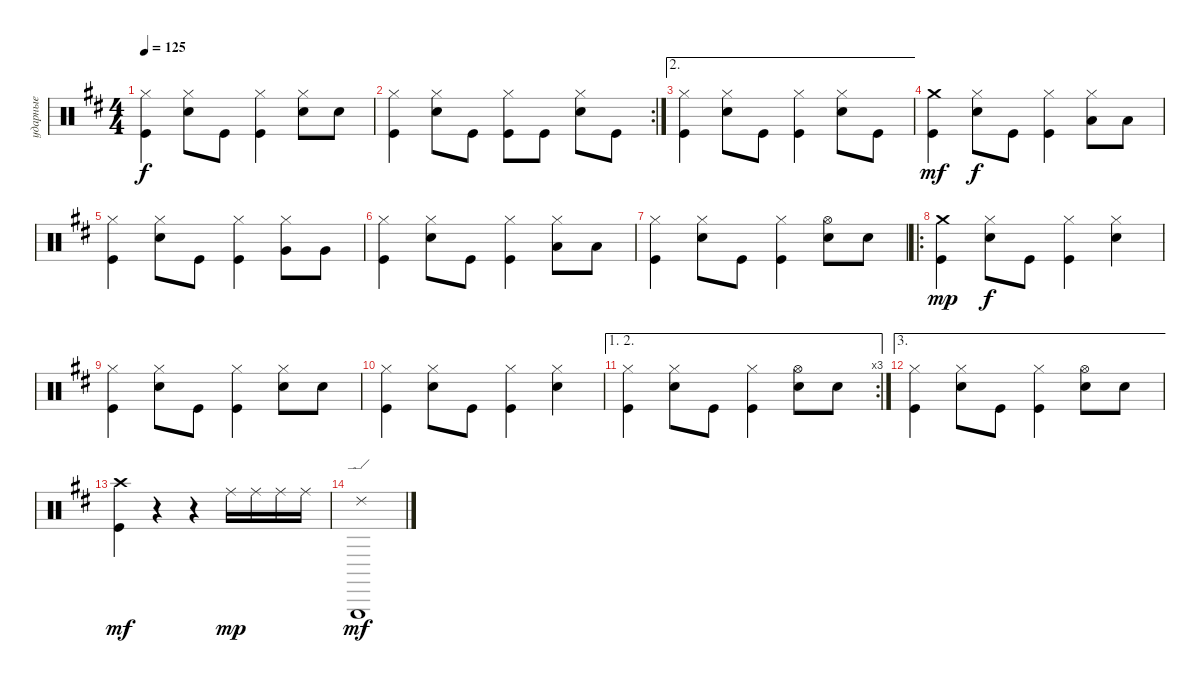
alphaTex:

\track ("ударные" "ударные") {instrument percussion}
\staff {score}
\articulation defaults
\ts (4 4)
\tempo 125
\clef neutral
\ks d
("Kick (hit)" "Hi-Hat (closed)").4{dy f} ("Snare (hit) 2" "Hi-Hat (closed)").8 "Kick (hit)".8 ("Kick (hit)" "Hi-Hat (closed)").4 ("Snare (hit) 2" "Hi-Hat (closed)").8 "Snare (hit) 2".8 |
\rc 2
("Kick (hit)" "Hi-Hat (closed)").4 ("Snare (hit) 2" "Hi-Hat (closed)").8 "Kick (hit)".8 ("Kick (hit)" "Hi-Hat (closed)").8 "Kick (hit)".8 ("Snare (hit) 2" "Hi-Hat (closed)").8 "Kick (hit)".8 |
\ae 2
("Kick (hit)" "Hi-Hat (closed)").4 ("Snare (hit) 2" "Hi-Hat (closed)").8 "Kick (hit)".8 ("Kick (hit)" "Hi-Hat (closed)").4 ("Snare (hit) 2" "Hi-Hat (closed)").8 "Kick (hit)".8 |
("Kick (hit)" "Crash medium (hit)").4{dy mf} ("Snare (hit) 2" "Hi-Hat (closed)").8{dy f} "Kick (hit)".8 ("Kick (hit)" "Hi-Hat (closed)").4 ("Hi-Hat (closed)" "Low Tom (hit)").8 "Low Tom (hit)".8 |
("Kick (hit)" "Hi-Hat (closed)").4 ("Snare (hit) 2" "Hi-Hat (closed)").8 "Kick (hit)".8 ("Kick (hit)" "Hi-Hat (closed)").4 ("Hi-Hat (closed)" "Very Low Tom (hit)").8 "Very Low Tom (hit)".8 |
("Kick (hit)" "Hi-Hat (closed)").4 ("Snare (hit) 2" "Hi-Hat (closed)").8 "Kick (hit)".8 ("Kick (hit)" "Hi-Hat (closed)").4 ("Low Floor Tom (hit)" "Hi-Hat (closed)").8 "Low Floor Tom (hit)".8 |
("Kick (hit)" "Hi-Hat (closed)").4 ("Snare (hit) 2" "Hi-Hat (closed)").8 "Kick (hit)".8 ("Kick (hit)" "Hi-Hat (closed)").4 ("Snare (hit) 2" "Hi-Hat (open)").8 "Snare (hit) 2".8 |
\ro
("Kick (hit)" "Crash medium (hit)").4{dy mp} ("Snare (hit) 2" "Hi-Hat (closed)").8{dy f} "Kick (hit)".8 ("Kick (hit)" "Hi-Hat (closed)").4 ("Snare (hit) 2" "Hi-Hat (closed)").4 |
("Kick (hit)" "Hi-Hat (closed)").4 ("Snare (hit) 2" "Hi-Hat (closed)").8 "Kick (hit)".8 ("Kick (hit)" "Hi-Hat (closed)").4 ("Snare (hit) 2" "Hi-Hat (closed)").8 "Snare (hit) 2".8 |
("Kick (hit)" "Hi-Hat (closed)").4 ("Snare (hit) 2" "Hi-Hat (closed)").8 "Kick (hit)".8 ("Kick (hit)" "Hi-Hat (closed)").4 ("Snare (hit) 2" "Hi-Hat (closed)").4 |
\ae (1 2)
\rc 3
("Kick (hit)" "Hi-Hat (closed)").4 ("Snare (hit) 2" "Hi-Hat (closed)").8 "Kick (hit)".8 ("Kick (hit)" "Hi-Hat (closed)").4 ("Snare (hit) 2" "Hi-Hat (open)").8 "Snare (hit) 2".8 |
\ae 3
("Kick (hit)" "Hi-Hat (closed)").4 ("Snare (hit) 2" "Hi-Hat (closed)").8 "Kick (hit)".8 ("Kick (hit)" "Hi-Hat (closed)").4 ("Snare (hit) 2" "Hi-Hat (open)").8 "Snare (hit) 2".8 |
("Kick (hit)" "Crash high (hit)").4{dy mf} r.4 r.4 "Ride (middle)".16{dy mp} "Ride (middle)".16 "Ride (middle)".16 "Ride (middle)".16 |
("Triangle (hit)" "Ride (edge) 2").1{dy mf}
